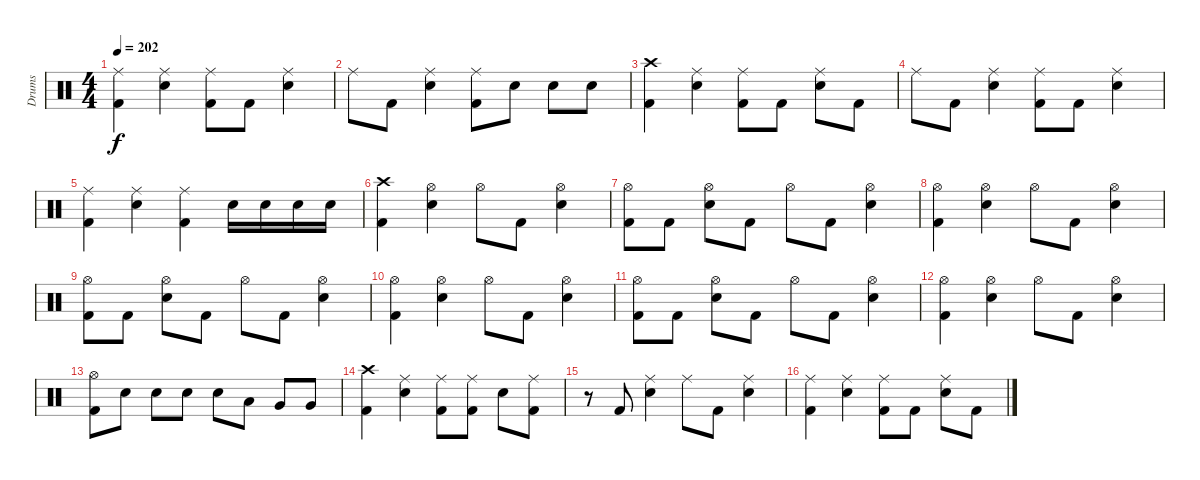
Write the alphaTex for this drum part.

\track ("Drums" "Drums") {instrument percussion}
\staff {score}
\articulation defaults
\ts (4 4)
\tempo 202
\clef neutral
\ks c
("Ride (middle)" "Kick (hit) 2").4{dy f} ("Ride (middle)" "Electric Snare (hit)").4 ("Ride (middle)" "Kick (hit) 2").8 "Kick (hit) 2".8 ("Ride (middle)" "Electric Snare (hit)").4 |
"Ride (middle)".8 "Kick (hit) 2".8 ("Ride (middle)" "Electric Snare (hit)").4 ("Ride (middle)" "Kick (hit) 2").8 "Electric Snare (hit)".8 "Electric Snare (hit)".8 "Electric Snare (hit)".8 |
("Crash high (hit)" "Kick (hit) 2").4 ("Ride (middle)" "Electric Snare (hit)").4 ("Ride (middle)" "Kick (hit) 2").8 "Kick (hit) 2".8 ("Ride (middle)" "Electric Snare (hit)").8 "Kick (hit) 2".8 |
"Ride (middle)".8 "Kick (hit) 2".8 ("Ride (middle)" "Electric Snare (hit)").4 ("Ride (middle)" "Kick (hit) 2").8 "Kick (hit) 2".8 ("Ride (middle)" "Electric Snare (hit)").4 |
("Ride (middle)" "Kick (hit) 2").4 ("Ride (middle)" "Electric Snare (hit)").4 ("Ride (middle)" "Kick (hit) 2").4 "Electric Snare (hit)".16 "Electric Snare (hit)".16 "Electric Snare (hit)".16 "Electric Snare (hit)".16 |
("Crash high (hit)" "Kick (hit) 2").4 ("Hi-Hat (open)" "Electric Snare (hit)").4 "Hi-Hat (open)".8 "Kick (hit) 2".8 ("Hi-Hat (open)" "Electric Snare (hit)").4 |
("Hi-Hat (open)" "Kick (hit) 2").8 "Kick (hit) 2".8 ("Hi-Hat (open)" "Electric Snare (hit)").8 "Kick (hit) 2".8 "Hi-Hat (open)".8 "Kick (hit) 2".8 ("Hi-Hat (open)" "Electric Snare (hit)").4 |
("Hi-Hat (open)" "Kick (hit) 2").4 ("Hi-Hat (open)" "Electric Snare (hit)").4 "Hi-Hat (open)".8 "Kick (hit) 2".8 ("Hi-Hat (open)" "Electric Snare (hit)").4 |
("Hi-Hat (open)" "Kick (hit) 2").8 "Kick (hit) 2".8 ("Hi-Hat (open)" "Electric Snare (hit)").8 "Kick (hit) 2".8 "Hi-Hat (open)".8 "Kick (hit) 2".8 ("Hi-Hat (open)" "Electric Snare (hit)").4 |
("Hi-Hat (open)" "Kick (hit) 2").4 ("Hi-Hat (open)" "Electric Snare (hit)").4 "Hi-Hat (open)".8 "Kick (hit) 2".8 ("Hi-Hat (open)" "Electric Snare (hit)").4 |
("Hi-Hat (open)" "Kick (hit) 2").8 "Kick (hit) 2".8 ("Hi-Hat (open)" "Electric Snare (hit)").8 "Kick (hit) 2".8 "Hi-Hat (open)".8 "Kick (hit) 2".8 ("Hi-Hat (open)" "Electric Snare (hit)").4 |
("Hi-Hat (open)" "Kick (hit) 2").4 ("Hi-Hat (open)" "Electric Snare (hit)").4 "Hi-Hat (open)".8 "Kick (hit) 2".8 ("Hi-Hat (open)" "Electric Snare (hit)").4 |
("Hi-Hat (open)" "Kick (hit) 2").8 "Electric Snare (hit)".8 "Electric Snare (hit)".8 "Electric Snare (hit)".8 "Electric Snare (hit)".8 "Low Tom (hit)".8 "Very Low Tom (hit)".8 "Very Low Tom (hit)".8 |
("Crash high (hit)" "Kick (hit) 2").4 ("Ride (middle)" "Electric Snare (hit)").4 ("Ride (middle)" "Kick (hit) 2").8 ("Ride (middle)" "Kick (hit) 2").8 "Electric Snare (hit)".8 ("Ride (middle)" "Kick (hit) 2").8 |
r.8 "Kick (hit) 2".8 ("Ride (middle)" "Electric Snare (hit)").4 "Ride (middle)".8 "Kick (hit) 2".8 ("Ride (middle)" "Electric Snare (hit)").4 |
("Ride (middle)" "Kick (hit) 2").4 ("Ride (middle)" "Electric Snare (hit)").4 ("Ride (middle)" "Kick (hit) 2").8 "Kick (hit) 2".8 ("Ride (middle)" "Electric Snare (hit)").8 "Kick (hit) 2".8
